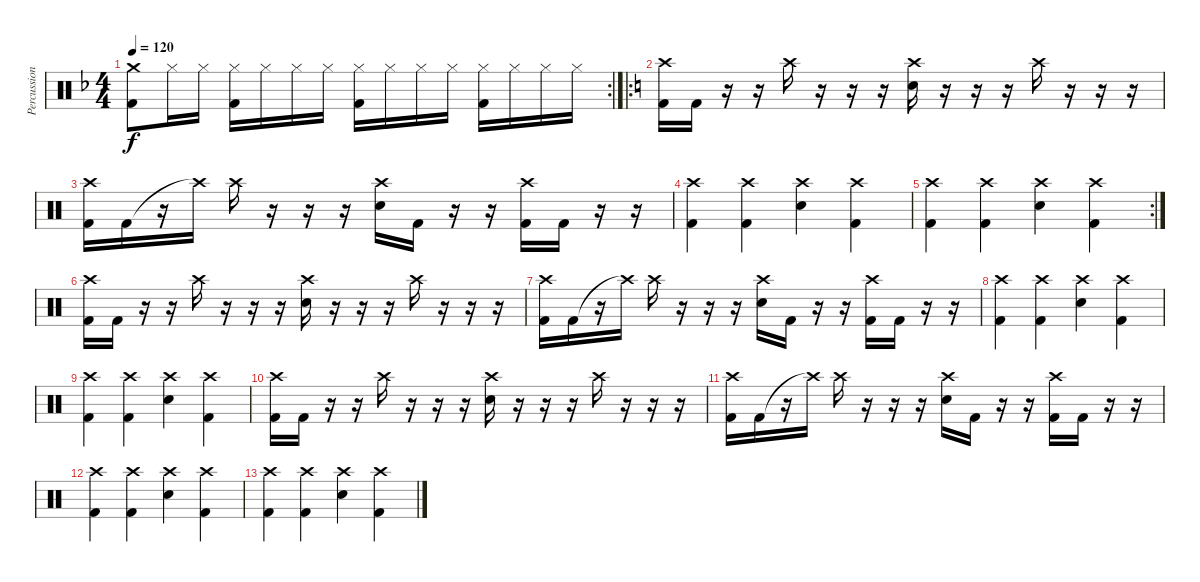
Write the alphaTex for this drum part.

\track ("Percussions" "Percussion") {instrument percussion}
\staff {score}
\articulation defaults
\rc 2
\ts (4 4)
\tempo 120
\clef neutral
\ks f
("Crash medium (hit)" "Kick (hit) 2").8{dy f} "Hi-Hat (closed)".16 "Hi-Hat (closed)".16 ("Hi-Hat (closed)" "Kick (hit) 2").16 "Hi-Hat (closed)".16 "Hi-Hat (closed)".16 "Hi-Hat (closed)".16 ("Hi-Hat (closed)" "Kick (hit) 2").16 "Hi-Hat (closed)".16 "Hi-Hat (closed)".16 "Hi-Hat (closed)".16 ("Hi-Hat (closed)" "Kick (hit) 2").16 "Hi-Hat (closed)".16 "Hi-Hat (closed)".16 "Hi-Hat (closed)".16 |
\ro
\ks c
("Crash high (hit)" "Kick (hit) 2").16 "Kick (hit) 2".16 r.16 r.16 "Crash high (hit)".16 r.16 r.16 r.16 ("Crash high (hit)" "Snare (hit) 2").16 r.16 r.16 r.16 "Crash high (hit)".16 r.16 r.16 r.16 |
("Crash high (hit)" "Kick (hit) 2").16 "Kick (hit) 2".16 r.16 "Crash high (hit)"{t}.16 "Crash high (hit)".16 r.16 r.16 r.16 ("Crash high (hit)" "Snare (hit) 2").16 "Kick (hit) 2".16 r.16 r.16 ("Crash high (hit)" "Kick (hit) 2").16 "Kick (hit) 2".16 r.16 r.16 |
("Crash high (hit)" "Kick (hit) 2").4 ("Crash high (hit)" "Kick (hit) 2").4 ("Crash high (hit)" "Electric Snare (hit)").4 ("Crash high (hit)" "Kick (hit) 2").4 |
\rc 2
("Crash high (hit)" "Kick (hit) 2").4 ("Crash high (hit)" "Kick (hit) 2").4 ("Crash high (hit)" "Electric Snare (hit)").4 ("Crash high (hit)" "Kick (hit) 2").4 |
("Crash high (hit)" "Kick (hit) 2").16{volume 8} "Kick (hit) 2".16 r.16 r.16 "Crash high (hit)".16 r.16 r.16 r.16 ("Crash high (hit)" "Snare (hit) 2").16 r.16 r.16 r.16 "Crash high (hit)".16 r.16 r.16 r.16 |
("Crash high (hit)" "Kick (hit) 2").16 "Kick (hit) 2".16 r.16 "Crash high (hit)"{t}.16 "Crash high (hit)".16 r.16 r.16 r.16 ("Crash high (hit)" "Snare (hit) 2").16 "Kick (hit) 2".16 r.16 r.16 ("Crash high (hit)" "Kick (hit) 2").16 "Kick (hit) 2".16 r.16 r.16 |
("Crash high (hit)" "Kick (hit) 2").4 ("Crash high (hit)" "Kick (hit) 2").4 ("Crash high (hit)" "Electric Snare (hit)").4 ("Crash high (hit)" "Kick (hit) 2").4 |
("Crash high (hit)" "Kick (hit) 2").4 ("Crash high (hit)" "Kick (hit) 2").4 ("Crash high (hit)" "Electric Snare (hit)").4 ("Crash high (hit)" "Kick (hit) 2").4 |
("Crash high (hit)" "Kick (hit) 2").16{volume 0} "Kick (hit) 2".16 r.16 r.16 "Crash high (hit)".16 r.16 r.16 r.16 ("Crash high (hit)" "Snare (hit) 2").16 r.16 r.16 r.16 "Crash high (hit)".16 r.16 r.16 r.16 |
("Crash high (hit)" "Kick (hit) 2").16 "Kick (hit) 2".16 r.16 "Crash high (hit)"{t}.16 "Crash high (hit)".16 r.16 r.16 r.16 ("Crash high (hit)" "Snare (hit) 2").16 "Kick (hit) 2".16 r.16 r.16 ("Crash high (hit)" "Kick (hit) 2").16 "Kick (hit) 2".16 r.16 r.16 |
("Crash high (hit)" "Kick (hit) 2").4 ("Crash high (hit)" "Kick (hit) 2").4 ("Crash high (hit)" "Electric Snare (hit)").4 ("Crash high (hit)" "Kick (hit) 2").4 |
("Crash high (hit)" "Kick (hit) 2").4 ("Crash high (hit)" "Kick (hit) 2").4 ("Crash high (hit)" "Electric Snare (hit)").4 ("Crash high (hit)" "Kick (hit) 2").4
